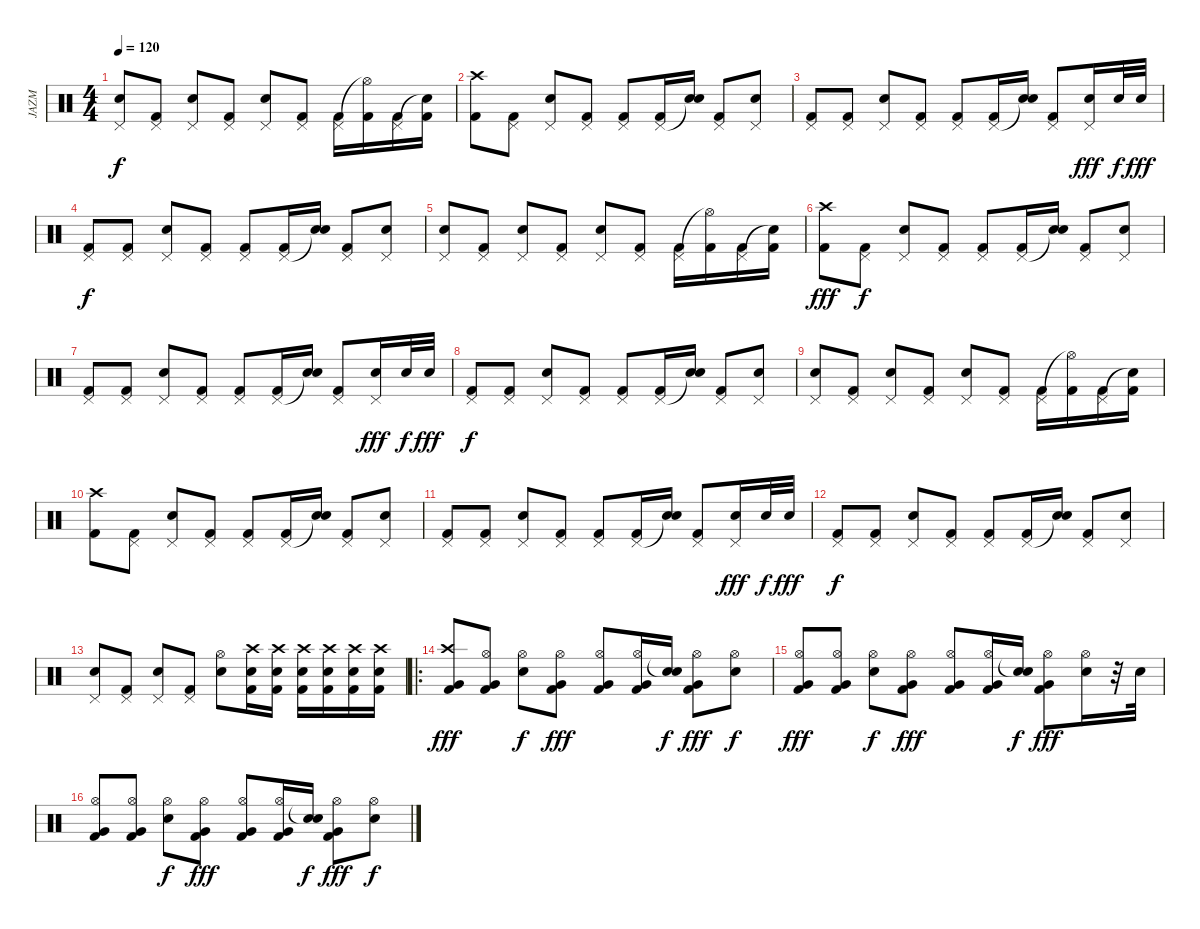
\track ("JAZM" "JAZM") {instrument percussion}
\staff {score}
\articulation defaults
\ts (4 4)
\tempo 120
\clef neutral
\ks c
("Pedal Hi-Hat (hit)" "Electric Snare (hit)").8{dy f} ("Pedal Hi-Hat (hit)" "Kick (hit) 2").8 ("Pedal Hi-Hat (hit)" "Electric Snare (hit)").8 ("Pedal Hi-Hat (hit)" "Kick (hit) 2").8 ("Pedal Hi-Hat (hit)" "Electric Snare (hit)").8 ("Pedal Hi-Hat (hit)" "Kick (hit) 2").8 ("Pedal Hi-Hat (hit)" "Kick (hit) 2").16 ("Hi-Hat (open)"{t} "Kick (hit) 2").16 ("Pedal Hi-Hat (hit)" "Kick (hit) 2").16 ("Snare (hit)"{t} "Kick (hit) 2").16 |
("Crash high (hit)" "Kick (hit) 2").8 ("Pedal Hi-Hat (hit)" "Kick (hit) 2").8 ("Pedal Hi-Hat (hit)" "Electric Snare (hit)").8 ("Pedal Hi-Hat (hit)" "Kick (hit) 2").8 ("Pedal Hi-Hat (hit)" "Kick (hit) 2").8 ("Pedal Hi-Hat (hit)" "Kick (hit) 2").16 ("Snare (hit)"{t} "Electric Snare (hit)").16 ("Pedal Hi-Hat (hit)" "Kick (hit) 2").8 ("Pedal Hi-Hat (hit)" "Electric Snare (hit)").8 |
("Pedal Hi-Hat (hit)" "Kick (hit) 2").8 ("Pedal Hi-Hat (hit)" "Kick (hit) 2").8 ("Pedal Hi-Hat (hit)" "Electric Snare (hit)").8 ("Pedal Hi-Hat (hit)" "Kick (hit) 2").8 ("Pedal Hi-Hat (hit)" "Kick (hit) 2").8 ("Pedal Hi-Hat (hit)" "Kick (hit) 2").16 ("Snare (hit)"{t} "Electric Snare (hit)").16 ("Pedal Hi-Hat (hit)" "Kick (hit) 2").8 ("Pedal Hi-Hat (hit)" "Electric Snare (hit)").16{dy fff} "Electric Snare (hit)".32{dy f} "Electric Snare (hit)".32{dy fff} |
("Pedal Hi-Hat (hit)" "Kick (hit) 2").8{dy f} ("Pedal Hi-Hat (hit)" "Kick (hit) 2").8 ("Pedal Hi-Hat (hit)" "Electric Snare (hit)").8 ("Pedal Hi-Hat (hit)" "Kick (hit) 2").8 ("Pedal Hi-Hat (hit)" "Kick (hit) 2").8 ("Pedal Hi-Hat (hit)" "Kick (hit) 2").16 ("Snare (hit)"{t} "Electric Snare (hit)").16 ("Pedal Hi-Hat (hit)" "Kick (hit) 2").8 ("Pedal Hi-Hat (hit)" "Electric Snare (hit)").8 |
("Pedal Hi-Hat (hit)" "Electric Snare (hit)").8 ("Pedal Hi-Hat (hit)" "Kick (hit) 2").8 ("Pedal Hi-Hat (hit)" "Electric Snare (hit)").8 ("Pedal Hi-Hat (hit)" "Kick (hit) 2").8 ("Pedal Hi-Hat (hit)" "Electric Snare (hit)").8 ("Pedal Hi-Hat (hit)" "Kick (hit) 2").8 ("Pedal Hi-Hat (hit)" "Kick (hit) 2").16 ("Hi-Hat (open)"{t} "Kick (hit) 2").16 ("Pedal Hi-Hat (hit)" "Kick (hit) 2").16 ("Snare (hit)"{t} "Kick (hit) 2").16 |
("Crash high (hit)" "Kick (hit) 2").8{dy fff} ("Pedal Hi-Hat (hit)" "Kick (hit) 2").8{dy f} ("Pedal Hi-Hat (hit)" "Electric Snare (hit)").8 ("Pedal Hi-Hat (hit)" "Kick (hit) 2").8 ("Pedal Hi-Hat (hit)" "Kick (hit) 2").8 ("Pedal Hi-Hat (hit)" "Kick (hit) 2").16 ("Snare (hit)"{t} "Electric Snare (hit)").16 ("Pedal Hi-Hat (hit)" "Kick (hit) 2").8 ("Pedal Hi-Hat (hit)" "Electric Snare (hit)").8 |
("Pedal Hi-Hat (hit)" "Kick (hit) 2").8 ("Pedal Hi-Hat (hit)" "Kick (hit) 2").8 ("Pedal Hi-Hat (hit)" "Electric Snare (hit)").8 ("Pedal Hi-Hat (hit)" "Kick (hit) 2").8 ("Pedal Hi-Hat (hit)" "Kick (hit) 2").8 ("Pedal Hi-Hat (hit)" "Kick (hit) 2").16 ("Snare (hit)"{t} "Electric Snare (hit)").16 ("Pedal Hi-Hat (hit)" "Kick (hit) 2").8 ("Pedal Hi-Hat (hit)" "Electric Snare (hit)").16{dy fff} "Electric Snare (hit)".32{dy f} "Electric Snare (hit)".32{dy fff} |
("Pedal Hi-Hat (hit)" "Kick (hit) 2").8{dy f} ("Pedal Hi-Hat (hit)" "Kick (hit) 2").8 ("Pedal Hi-Hat (hit)" "Electric Snare (hit)").8 ("Pedal Hi-Hat (hit)" "Kick (hit) 2").8 ("Pedal Hi-Hat (hit)" "Kick (hit) 2").8 ("Pedal Hi-Hat (hit)" "Kick (hit) 2").16 ("Snare (hit)"{t} "Electric Snare (hit)").16 ("Pedal Hi-Hat (hit)" "Kick (hit) 2").8 ("Pedal Hi-Hat (hit)" "Electric Snare (hit)").8 |
("Pedal Hi-Hat (hit)" "Electric Snare (hit)").8 ("Pedal Hi-Hat (hit)" "Kick (hit) 2").8 ("Pedal Hi-Hat (hit)" "Electric Snare (hit)").8 ("Pedal Hi-Hat (hit)" "Kick (hit) 2").8 ("Pedal Hi-Hat (hit)" "Electric Snare (hit)").8 ("Pedal Hi-Hat (hit)" "Kick (hit) 2").8 ("Pedal Hi-Hat (hit)" "Kick (hit) 2").16 ("Hi-Hat (open)"{t} "Kick (hit) 2").16 ("Pedal Hi-Hat (hit)" "Kick (hit) 2").16 ("Snare (hit)"{t} "Kick (hit) 2").16 |
("Crash high (hit)" "Kick (hit) 2").8 ("Pedal Hi-Hat (hit)" "Kick (hit) 2").8 ("Pedal Hi-Hat (hit)" "Electric Snare (hit)").8 ("Pedal Hi-Hat (hit)" "Kick (hit) 2").8 ("Pedal Hi-Hat (hit)" "Kick (hit) 2").8 ("Pedal Hi-Hat (hit)" "Kick (hit) 2").16 ("Snare (hit)"{t} "Electric Snare (hit)").16 ("Pedal Hi-Hat (hit)" "Kick (hit) 2").8 ("Pedal Hi-Hat (hit)" "Electric Snare (hit)").8 |
("Pedal Hi-Hat (hit)" "Kick (hit) 2").8 ("Pedal Hi-Hat (hit)" "Kick (hit) 2").8 ("Pedal Hi-Hat (hit)" "Electric Snare (hit)").8 ("Pedal Hi-Hat (hit)" "Kick (hit) 2").8 ("Pedal Hi-Hat (hit)" "Kick (hit) 2").8 ("Pedal Hi-Hat (hit)" "Kick (hit) 2").16 ("Snare (hit)"{t} "Electric Snare (hit)").16 ("Pedal Hi-Hat (hit)" "Kick (hit) 2").8 ("Pedal Hi-Hat (hit)" "Electric Snare (hit)").16{dy fff} "Electric Snare (hit)".32{dy f} "Electric Snare (hit)".32{dy fff} |
("Pedal Hi-Hat (hit)" "Kick (hit) 2").8{dy f} ("Pedal Hi-Hat (hit)" "Kick (hit) 2").8 ("Pedal Hi-Hat (hit)" "Electric Snare (hit)").8 ("Pedal Hi-Hat (hit)" "Kick (hit) 2").8 ("Pedal Hi-Hat (hit)" "Kick (hit) 2").8 ("Pedal Hi-Hat (hit)" "Kick (hit) 2").16 ("Snare (hit)"{t} "Electric Snare (hit)").16 ("Pedal Hi-Hat (hit)" "Kick (hit) 2").8 ("Pedal Hi-Hat (hit)" "Electric Snare (hit)").8 |
("Pedal Hi-Hat (hit)" "Electric Snare (hit)").8 ("Pedal Hi-Hat (hit)" "Kick (hit) 2").8 ("Pedal Hi-Hat (hit)" "Electric Snare (hit)").8 ("Pedal Hi-Hat (hit)" "Kick (hit) 2").8 ("Hi-Hat (open)" "Electric Snare (hit)").8 ("Crash high (hit)" "Electric Snare (hit)" "Kick (hit) 2").16 ("Crash high (hit)" "Electric Snare (hit)" "Kick (hit) 2").16 ("Crash high (hit)" "Electric Snare (hit)" "Kick (hit) 2").16 ("Crash high (hit)" "Electric Snare (hit)" "Kick (hit) 2").16 ("Crash high (hit)" "Electric Snare (hit)" "Kick (hit) 2").16 ("Crash high (hit)" "Electric Snare (hit)" "Kick (hit) 2").16 |
\ro
("Crash high (hit)" "Very Low Tom (hit)" "Kick (hit) 2").8{dy fff} ("Hi-Hat (open)" "Very Low Tom (hit)" "Kick (hit) 2").8 ("Hi-Hat (open)" "Electric Snare (hit)").8{dy f} ("Hi-Hat (open)" "Very Low Tom (hit)" "Kick (hit) 2").8{dy fff} ("Hi-Hat (open)" "Very Low Tom (hit)" "Kick (hit) 2").8 ("Hi-Hat (open)" "Very Low Tom (hit)" "Kick (hit) 2").16 ("Snare (hit)"{t} "Electric Snare (hit)").16{dy f} ("Hi-Hat (open)" "Very Low Tom (hit)" "Kick (hit) 2").8{dy fff} ("Hi-Hat (open)" "Electric Snare (hit)").8{dy f} |
("Hi-Hat (open)" "Very Low Tom (hit)" "Kick (hit) 2").8{dy fff} ("Hi-Hat (open)" "Very Low Tom (hit)" "Kick (hit) 2").8 ("Hi-Hat (open)" "Electric Snare (hit)").8{dy f} ("Hi-Hat (open)" "Very Low Tom (hit)" "Kick (hit) 2").8{dy fff} ("Hi-Hat (open)" "Very Low Tom (hit)" "Kick (hit) 2").8 ("Hi-Hat (open)" "Very Low Tom (hit)" "Kick (hit) 2").16 ("Snare (hit)"{t} "Electric Snare (hit)").16{dy f} ("Hi-Hat (open)" "Very Low Tom (hit)" "Kick (hit) 2").8{dy fff} ("Hi-Hat (open)" "Electric Snare (hit)").16 r.32 "Electric Snare (hit)".32 |
("Hi-Hat (open)" "Very Low Tom (hit)" "Kick (hit) 2").8 ("Hi-Hat (open)" "Very Low Tom (hit)" "Kick (hit) 2").8 ("Hi-Hat (open)" "Electric Snare (hit)").8{dy f} ("Hi-Hat (open)" "Very Low Tom (hit)" "Kick (hit) 2").8{dy fff} ("Hi-Hat (open)" "Very Low Tom (hit)" "Kick (hit) 2").8 ("Hi-Hat (open)" "Very Low Tom (hit)" "Kick (hit) 2").16 ("Snare (hit)"{t} "Electric Snare (hit)").16{dy f} ("Hi-Hat (open)" "Very Low Tom (hit)" "Kick (hit) 2").8{dy fff} ("Hi-Hat (open)" "Electric Snare (hit)").8{dy f}
